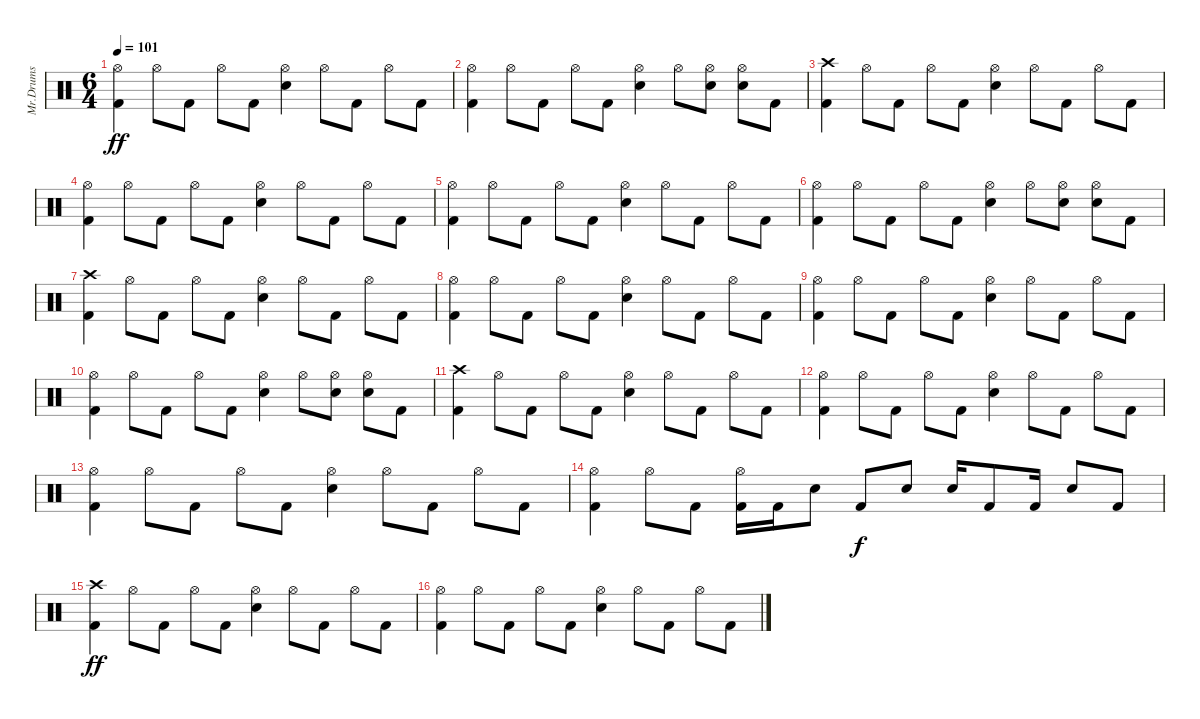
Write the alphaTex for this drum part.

\track ("Mr.Drums" "Mr.Drums") {instrument percussion}
\staff {score}
\articulation defaults
\ts (6 4)
\tempo 101
\clef neutral
\ks c
("Hi-Hat (open)" "Kick (hit) 2").4{dy ff} "Hi-Hat (open)".8 "Kick (hit) 2".8 "Hi-Hat (open)".8 "Kick (hit) 2".8 ("Hi-Hat (open)" "Electric Snare (hit)").4 "Hi-Hat (open)".8 "Kick (hit) 2".8 "Hi-Hat (open)".8 "Kick (hit) 2".8 |
("Hi-Hat (open)" "Kick (hit) 2").4 "Hi-Hat (open)".8 "Kick (hit) 2".8 "Hi-Hat (open)".8 "Kick (hit) 2".8 ("Hi-Hat (open)" "Electric Snare (hit)").4 "Hi-Hat (open)".8 ("Hi-Hat (open)" "Electric Snare (hit)").8 ("Hi-Hat (open)" "Electric Snare (hit)").8 "Kick (hit) 2".8 |
("Crash high (hit)" "Kick (hit) 2").4 "Hi-Hat (open)".8 "Kick (hit) 2".8 "Hi-Hat (open)".8 "Kick (hit) 2".8 ("Hi-Hat (open)" "Electric Snare (hit)").4 "Hi-Hat (open)".8 "Kick (hit) 2".8 "Hi-Hat (open)".8 "Kick (hit) 2".8 |
("Hi-Hat (open)" "Kick (hit) 2").4 "Hi-Hat (open)".8 "Kick (hit) 2".8 "Hi-Hat (open)".8 "Kick (hit) 2".8 ("Hi-Hat (open)" "Electric Snare (hit)").4 "Hi-Hat (open)".8 "Kick (hit) 2".8 "Hi-Hat (open)".8 "Kick (hit) 2".8 |
("Hi-Hat (open)" "Kick (hit) 2").4 "Hi-Hat (open)".8 "Kick (hit) 2".8 "Hi-Hat (open)".8 "Kick (hit) 2".8 ("Hi-Hat (open)" "Electric Snare (hit)").4 "Hi-Hat (open)".8 "Kick (hit) 2".8 "Hi-Hat (open)".8 "Kick (hit) 2".8 |
("Hi-Hat (open)" "Kick (hit) 2").4 "Hi-Hat (open)".8 "Kick (hit) 2".8 "Hi-Hat (open)".8 "Kick (hit) 2".8 ("Hi-Hat (open)" "Electric Snare (hit)").4 "Hi-Hat (open)".8 ("Hi-Hat (open)" "Electric Snare (hit)").8 ("Hi-Hat (open)" "Electric Snare (hit)").8 "Kick (hit) 2".8 |
("Crash high (hit)" "Kick (hit) 2").4 "Hi-Hat (open)".8 "Kick (hit) 2".8 "Hi-Hat (open)".8 "Kick (hit) 2".8 ("Hi-Hat (open)" "Electric Snare (hit)").4 "Hi-Hat (open)".8 "Kick (hit) 2".8 "Hi-Hat (open)".8 "Kick (hit) 2".8 |
("Hi-Hat (open)" "Kick (hit) 2").4 "Hi-Hat (open)".8 "Kick (hit) 2".8 "Hi-Hat (open)".8 "Kick (hit) 2".8 ("Hi-Hat (open)" "Electric Snare (hit)").4 "Hi-Hat (open)".8 "Kick (hit) 2".8 "Hi-Hat (open)".8 "Kick (hit) 2".8 |
("Hi-Hat (open)" "Kick (hit) 2").4 "Hi-Hat (open)".8 "Kick (hit) 2".8 "Hi-Hat (open)".8 "Kick (hit) 2".8 ("Hi-Hat (open)" "Electric Snare (hit)").4 "Hi-Hat (open)".8 "Kick (hit) 2".8 "Hi-Hat (open)".8 "Kick (hit) 2".8 |
("Hi-Hat (open)" "Kick (hit) 2").4 "Hi-Hat (open)".8 "Kick (hit) 2".8 "Hi-Hat (open)".8 "Kick (hit) 2".8 ("Hi-Hat (open)" "Electric Snare (hit)").4 "Hi-Hat (open)".8 ("Hi-Hat (open)" "Electric Snare (hit)").8 ("Hi-Hat (open)" "Electric Snare (hit)").8 "Kick (hit) 2".8 |
("Crash high (hit)" "Kick (hit) 2").4 "Hi-Hat (open)".8 "Kick (hit) 2".8 "Hi-Hat (open)".8 "Kick (hit) 2".8 ("Hi-Hat (open)" "Electric Snare (hit)").4 "Hi-Hat (open)".8 "Kick (hit) 2".8 "Hi-Hat (open)".8 "Kick (hit) 2".8 |
("Hi-Hat (open)" "Kick (hit) 2").4 "Hi-Hat (open)".8 "Kick (hit) 2".8 "Hi-Hat (open)".8 "Kick (hit) 2".8 ("Hi-Hat (open)" "Electric Snare (hit)").4 "Hi-Hat (open)".8 "Kick (hit) 2".8 "Hi-Hat (open)".8 "Kick (hit) 2".8 |
("Hi-Hat (open)" "Kick (hit) 2").4 "Hi-Hat (open)".8 "Kick (hit) 2".8 "Hi-Hat (open)".8 "Kick (hit) 2".8 ("Hi-Hat (open)" "Electric Snare (hit)").4 "Hi-Hat (open)".8 "Kick (hit) 2".8 "Hi-Hat (open)".8 "Kick (hit) 2".8 |
("Hi-Hat (open)" "Kick (hit) 2").4 "Hi-Hat (open)".8 "Kick (hit) 2".8 ("Hi-Hat (open)" "Kick (hit) 2").16 "Kick (hit) 2".16 "Electric Snare (hit)".8 "Kick (hit) 2".8{dy f} "Electric Snare (hit)".8 "Electric Snare (hit)".16 "Kick (hit) 2".8 "Kick (hit) 2".16 "Electric Snare (hit)".8 "Kick (hit) 2".8 |
("Crash high (hit)" "Kick (hit) 2").4{dy ff} "Hi-Hat (open)".8 "Kick (hit) 2".8 "Hi-Hat (open)".8 "Kick (hit) 2".8 ("Hi-Hat (open)" "Electric Snare (hit)").4 "Hi-Hat (open)".8 "Kick (hit) 2".8 "Hi-Hat (open)".8 "Kick (hit) 2".8 |
("Hi-Hat (open)" "Kick (hit) 2").4 "Hi-Hat (open)".8 "Kick (hit) 2".8 "Hi-Hat (open)".8 "Kick (hit) 2".8 ("Hi-Hat (open)" "Electric Snare (hit)").4 "Hi-Hat (open)".8 "Kick (hit) 2".8 "Hi-Hat (open)".8 "Kick (hit) 2".8
